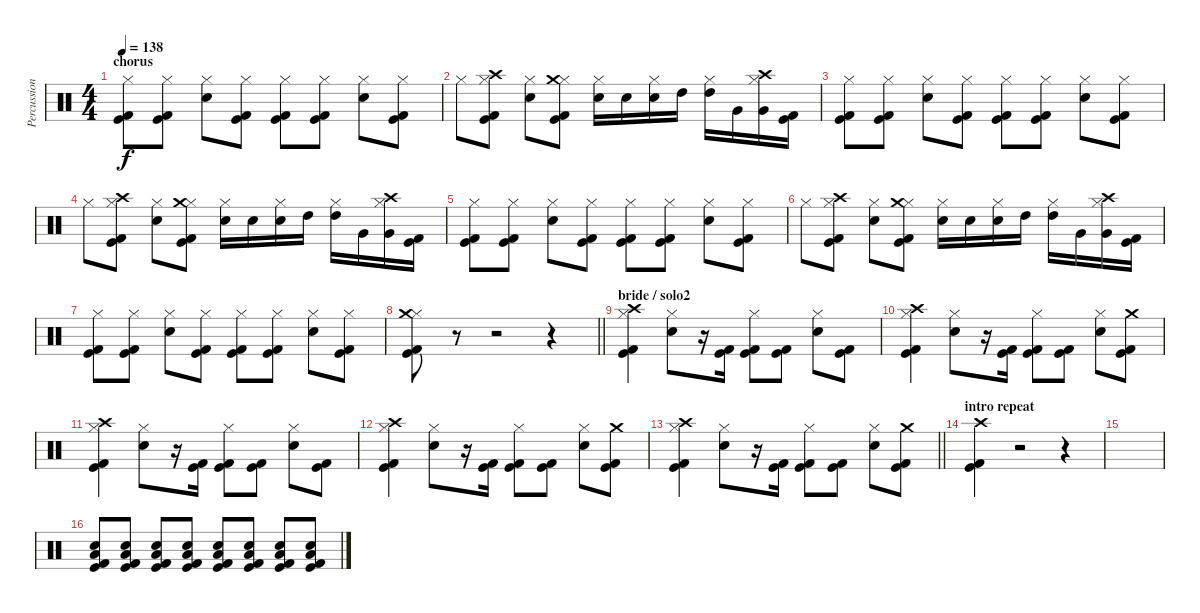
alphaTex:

\track ("Percussion" "Percussion") {instrument percussion}
\staff {score}
\articulation defaults
\ts (4 4)
\section ("" "chorus")
\tempo 138
\clef neutral
\ks c
("Hi-Hat (closed)" "Kick (hit) 2" "Kick (hit)").8{dy f} ("Hi-Hat (closed)" "Kick (hit) 2" "Kick (hit)").8 ("Hi-Hat (closed)" "Snare (hit) 2").8 ("Hi-Hat (closed)" "Kick (hit) 2" "Kick (hit)").8 ("Hi-Hat (closed)" "Kick (hit) 2" "Kick (hit)").8 ("Hi-Hat (closed)" "Kick (hit) 2" "Kick (hit)").8 ("Hi-Hat (closed)" "Snare (hit) 2").8 ("Hi-Hat (closed)" "Kick (hit) 2" "Kick (hit)").8 |
"Hi-Hat (closed)".8 ("Hi-Hat (closed)" "Crash high (hit)" "Kick (hit) 2" "Kick (hit)").8 ("Hi-Hat (closed)" "Snare (hit) 2").8 ("Hi-Hat (closed)" "Crash medium (hit)" "Kick (hit) 2" "Kick (hit)").8 ("Hi-Hat (closed)" "Snare (hit) 2").16 "Snare (hit) 2".16 ("Hi-Hat (closed)" "Snare (hit) 2").16 "High Tom (hit)".16 ("Hi-Hat (closed)" "High Tom (hit)").16 "Very Low Tom (hit)".16 ("Hi-Hat (closed)" "Crash high (hit)" "Very Low Tom (hit)").16 ("Kick (hit)" "Kick (hit) 2").16 |
("Hi-Hat (closed)" "Kick (hit) 2" "Kick (hit)").8 ("Hi-Hat (closed)" "Kick (hit) 2" "Kick (hit)").8 ("Hi-Hat (closed)" "Snare (hit) 2").8 ("Hi-Hat (closed)" "Kick (hit) 2" "Kick (hit)").8 ("Hi-Hat (closed)" "Kick (hit) 2" "Kick (hit)").8 ("Hi-Hat (closed)" "Kick (hit) 2" "Kick (hit)").8 ("Hi-Hat (closed)" "Snare (hit) 2").8 ("Hi-Hat (closed)" "Kick (hit) 2" "Kick (hit)").8 |
"Hi-Hat (closed)".8 ("Hi-Hat (closed)" "Crash high (hit)" "Kick (hit) 2" "Kick (hit)").8 ("Hi-Hat (closed)" "Snare (hit) 2").8 ("Hi-Hat (closed)" "Crash medium (hit)" "Kick (hit) 2" "Kick (hit)").8 ("Hi-Hat (closed)" "Snare (hit) 2").16 "Snare (hit) 2".16 ("Hi-Hat (closed)" "Snare (hit) 2").16 "High Tom (hit)".16 ("Hi-Hat (closed)" "High Tom (hit)").16 "Very Low Tom (hit)".16 ("Hi-Hat (closed)" "Crash high (hit)" "Very Low Tom (hit)").16 ("Kick (hit)" "Kick (hit) 2").16 |
("Hi-Hat (closed)" "Kick (hit) 2" "Kick (hit)").8 ("Hi-Hat (closed)" "Kick (hit) 2" "Kick (hit)").8 ("Hi-Hat (closed)" "Snare (hit) 2").8 ("Hi-Hat (closed)" "Kick (hit) 2" "Kick (hit)").8 ("Hi-Hat (closed)" "Kick (hit) 2" "Kick (hit)").8 ("Hi-Hat (closed)" "Kick (hit) 2" "Kick (hit)").8 ("Hi-Hat (closed)" "Snare (hit) 2").8 ("Hi-Hat (closed)" "Kick (hit) 2" "Kick (hit)").8 |
"Hi-Hat (closed)".8 ("Hi-Hat (closed)" "Crash high (hit)" "Kick (hit) 2" "Kick (hit)").8 ("Hi-Hat (closed)" "Snare (hit) 2").8 ("Hi-Hat (closed)" "Crash medium (hit)" "Kick (hit) 2" "Kick (hit)").8 ("Hi-Hat (closed)" "Snare (hit) 2").16 "Snare (hit) 2".16 ("Hi-Hat (closed)" "Snare (hit) 2").16 "High Tom (hit)".16 ("Hi-Hat (closed)" "High Tom (hit)").16 "Very Low Tom (hit)".16 ("Hi-Hat (closed)" "Crash high (hit)" "Very Low Tom (hit)").16 ("Kick (hit)" "Kick (hit) 2").16 |
("Hi-Hat (closed)" "Kick (hit) 2" "Kick (hit)").8 ("Hi-Hat (closed)" "Kick (hit) 2" "Kick (hit)").8 ("Hi-Hat (closed)" "Snare (hit) 2").8 ("Hi-Hat (closed)" "Kick (hit) 2" "Kick (hit)").8 ("Hi-Hat (closed)" "Kick (hit) 2" "Kick (hit)").8 ("Hi-Hat (closed)" "Kick (hit) 2" "Kick (hit)").8 ("Hi-Hat (closed)" "Snare (hit) 2").8 ("Hi-Hat (closed)" "Kick (hit) 2" "Kick (hit)").8 |
\barLineRight lightlight
("Hi-Hat (closed)" "Crash medium (hit)" "Kick (hit) 2" "Kick (hit)").8 r.8 r.2 r.4 |
\section ("" "bride / solo2")
("Hi-Hat (closed)" "Crash high (hit)" "Kick (hit) 2" "Kick (hit)").4 ("Hi-Hat (closed)" "Snare (hit) 2").8 r.16 ("Kick (hit) 2" "Kick (hit)").16 ("Hi-Hat (closed)" "Kick (hit) 2" "Kick (hit)").8 ("Kick (hit) 2" "Kick (hit)").8 ("Hi-Hat (closed)" "Snare (hit) 2").8 ("Kick (hit) 2" "Kick (hit)").8 |
("Hi-Hat (closed)" "Crash high (hit)" "Kick (hit) 2" "Kick (hit)").4 ("Hi-Hat (closed)" "Snare (hit) 2").8 r.16 ("Kick (hit) 2" "Kick (hit)").16 ("Hi-Hat (closed)" "Kick (hit) 2" "Kick (hit)").8 ("Kick (hit) 2" "Kick (hit)").8 ("Hi-Hat (closed)" "Snare (hit) 2").8 ("Crash medium (hit)" "Kick (hit) 2" "Kick (hit)").8 |
("Hi-Hat (closed)" "Crash high (hit)" "Kick (hit) 2" "Kick (hit)").4 ("Hi-Hat (closed)" "Snare (hit) 2").8 r.16 ("Kick (hit) 2" "Kick (hit)").16 ("Hi-Hat (closed)" "Kick (hit) 2" "Kick (hit)").8 ("Kick (hit) 2" "Kick (hit)").8 ("Hi-Hat (closed)" "Snare (hit) 2").8 ("Kick (hit) 2" "Kick (hit)").8 |
("Hi-Hat (closed)" "Crash high (hit)" "Kick (hit) 2" "Kick (hit)").4 ("Hi-Hat (closed)" "Snare (hit) 2").8 r.16 ("Kick (hit) 2" "Kick (hit)").16 ("Hi-Hat (closed)" "Kick (hit) 2" "Kick (hit)").8 ("Kick (hit) 2" "Kick (hit)").8 ("Hi-Hat (closed)" "Snare (hit) 2").8 ("Crash medium (hit)" "Kick (hit) 2" "Kick (hit)").8 |
\barLineRight lightlight
("Hi-Hat (closed)" "Crash high (hit)" "Kick (hit) 2" "Kick (hit)").4 ("Hi-Hat (closed)" "Snare (hit) 2").8 r.16 ("Kick (hit) 2" "Kick (hit)").16 ("Hi-Hat (closed)" "Kick (hit) 2" "Kick (hit)").8 ("Kick (hit) 2" "Kick (hit)").8 ("Hi-Hat (closed)" "Snare (hit) 2").8 ("Crash medium (hit)" "Kick (hit) 2" "Kick (hit)").8 |
\section ("" "intro repeat")
("Crash high (hit)" "Kick (hit) 2" "Kick (hit)").4 r.2 r.4 |
|
("Kick (hit) 2" "Low Floor Tom (hit)" "Snare (hit) 2" "Kick (hit)").8 ("Kick (hit) 2" "Low Floor Tom (hit)" "Snare (hit) 2" "Kick (hit)").8 ("Kick (hit) 2" "Low Floor Tom (hit)" "Snare (hit) 2" "Kick (hit)").8 ("Kick (hit) 2" "Low Floor Tom (hit)" "Snare (hit) 2" "Kick (hit)").8 ("Kick (hit) 2" "Low Floor Tom (hit)" "Snare (hit) 2" "Kick (hit)").8 ("Kick (hit) 2" "Low Floor Tom (hit)" "Snare (hit) 2" "Kick (hit)").8 ("Kick (hit) 2" "Low Floor Tom (hit)" "Snare (hit) 2" "Kick (hit)").8 ("Kick (hit) 2" "Low Floor Tom (hit)" "Snare (hit) 2" "Kick (hit)").8
